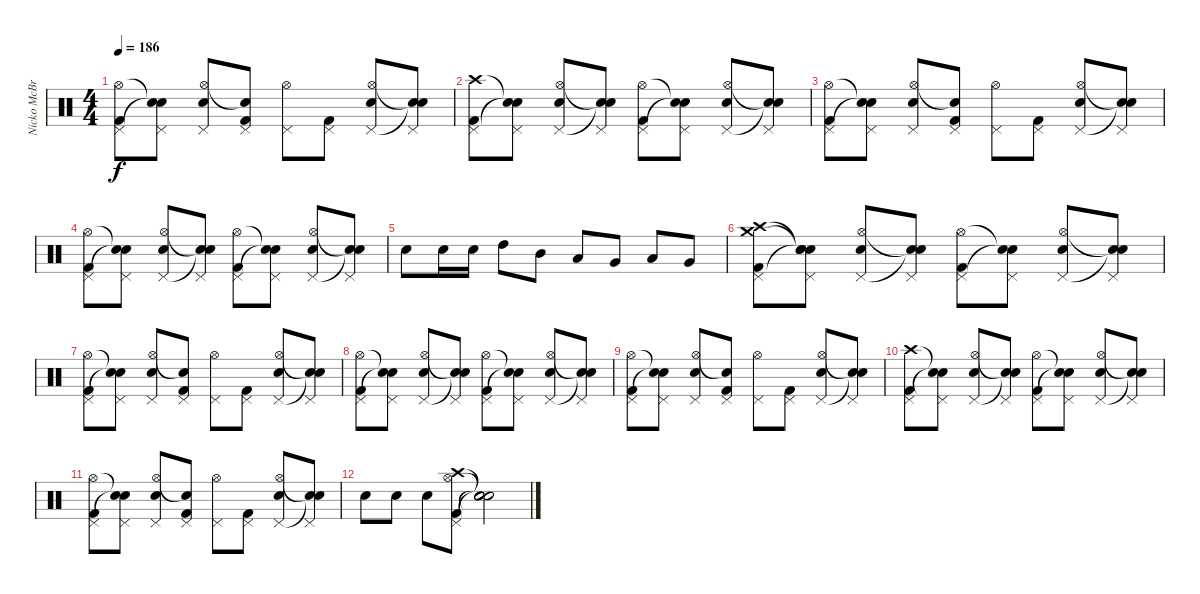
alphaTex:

\track ("Nicko McBrain" "Nicko McBr") {instrument percussion}
\staff {score}
\articulation defaults
\ts (4 4)
\tempo 186
\clef neutral
\ks c
("Kick (hit) 2" "Pedal Hi-Hat (hit)" "Hi-Hat (open)").8{dy f} ("Pedal Hi-Hat (hit)" "Snare (hit)"{t} "Snare (hit)"{t}).8 ("Snare (hit) 2" "Pedal Hi-Hat (hit)" "Hi-Hat (open)").8 ("Kick (hit) 2" "Pedal Hi-Hat (hit)" "Snare (hit)"{t}).8 ("Pedal Hi-Hat (hit)" "Hi-Hat (open)").8 ("Kick (hit) 2" "Pedal Hi-Hat (hit)").8 ("Snare (hit) 2" "Pedal Hi-Hat (hit)" "Hi-Hat (open)").8 ("Pedal Hi-Hat (hit)" "Snare (hit)"{t} "Snare (hit)"{t}).8 |
("Kick (hit) 2" "Pedal Hi-Hat (hit)" "Crash high (hit)").8 ("Pedal Hi-Hat (hit)" "Snare (hit)"{t} "Snare (hit)"{t}).8 ("Snare (hit) 2" "Pedal Hi-Hat (hit)" "Hi-Hat (open)").8 ("Pedal Hi-Hat (hit)" "Snare (hit)"{t} "Snare (hit)"{t}).8 ("Kick (hit) 2" "Pedal Hi-Hat (hit)" "Hi-Hat (open)").8 ("Pedal Hi-Hat (hit)" "Snare (hit)"{t} "Snare (hit)"{t}).8 ("Snare (hit) 2" "Pedal Hi-Hat (hit)" "Hi-Hat (open)").8 ("Pedal Hi-Hat (hit)" "Snare (hit)"{t} "Snare (hit)"{t}).8 |
("Kick (hit) 2" "Pedal Hi-Hat (hit)" "Hi-Hat (open)").8 ("Pedal Hi-Hat (hit)" "Snare (hit)"{t} "Snare (hit)"{t}).8 ("Snare (hit) 2" "Pedal Hi-Hat (hit)" "Hi-Hat (open)").8 ("Kick (hit) 2" "Pedal Hi-Hat (hit)" "Snare (hit)"{t}).8 ("Pedal Hi-Hat (hit)" "Hi-Hat (open)").8 ("Kick (hit) 2" "Pedal Hi-Hat (hit)").8 ("Snare (hit) 2" "Pedal Hi-Hat (hit)" "Hi-Hat (open)").8 ("Pedal Hi-Hat (hit)" "Snare (hit)"{t} "Snare (hit)"{t}).8 |
("Kick (hit) 2" "Pedal Hi-Hat (hit)" "Hi-Hat (open)").8 ("Pedal Hi-Hat (hit)" "Snare (hit)"{t} "Snare (hit)"{t}).8 ("Snare (hit) 2" "Pedal Hi-Hat (hit)" "Hi-Hat (open)").8 ("Pedal Hi-Hat (hit)" "Snare (hit)"{t} "Snare (hit)"{t}).8 ("Kick (hit) 2" "Pedal Hi-Hat (hit)" "Hi-Hat (open)").8 ("Pedal Hi-Hat (hit)" "Snare (hit)"{t} "Snare (hit)"{t}).8 ("Snare (hit) 2" "Pedal Hi-Hat (hit)" "Hi-Hat (open)").8 ("Pedal Hi-Hat (hit)" "Snare (hit)"{t} "Snare (hit)"{t}).8 |
"Snare (hit) 2".8 "Snare (hit) 2".16 "Snare (hit) 2".16 "High Tom (hit)".8 "Mid Tom (hit)".8 "Low Tom (hit)".8 "Very Low Tom (hit)".8 "Low Floor Tom (hit)".8 "Very Low Tom (hit)".8 |
("Kick (hit) 2" "Pedal Hi-Hat (hit)" "Crash high (hit)" "Crash medium (hit)").8 ("Pedal Hi-Hat (hit)" "Snare (hit)"{t} "Snare (hit)"{t} "Snare (hit)"{t}).8 ("Snare (hit) 2" "Pedal Hi-Hat (hit)" "Hi-Hat (open)").8 ("Pedal Hi-Hat (hit)" "Snare (hit)"{t} "Snare (hit)"{t}).8 ("Kick (hit) 2" "Pedal Hi-Hat (hit)" "Hi-Hat (open)").8 ("Pedal Hi-Hat (hit)" "Snare (hit)"{t} "Snare (hit)"{t}).8 ("Snare (hit) 2" "Pedal Hi-Hat (hit)" "Hi-Hat (open)").8 ("Pedal Hi-Hat (hit)" "Snare (hit)"{t} "Snare (hit)"{t}).8 |
("Kick (hit) 2" "Pedal Hi-Hat (hit)" "Hi-Hat (open)").8 ("Pedal Hi-Hat (hit)" "Snare (hit)"{t} "Snare (hit)"{t}).8 ("Snare (hit) 2" "Pedal Hi-Hat (hit)" "Hi-Hat (open)").8 ("Kick (hit) 2" "Pedal Hi-Hat (hit)" "Snare (hit)"{t}).8 ("Pedal Hi-Hat (hit)" "Hi-Hat (open)").8 ("Kick (hit) 2" "Pedal Hi-Hat (hit)").8 ("Snare (hit) 2" "Pedal Hi-Hat (hit)" "Hi-Hat (open)").8 ("Pedal Hi-Hat (hit)" "Snare (hit)"{t} "Snare (hit)"{t}).8 |
("Kick (hit) 2" "Pedal Hi-Hat (hit)" "Hi-Hat (open)").8 ("Pedal Hi-Hat (hit)" "Snare (hit)"{t} "Snare (hit)"{t}).8 ("Snare (hit) 2" "Pedal Hi-Hat (hit)" "Hi-Hat (open)").8 ("Pedal Hi-Hat (hit)" "Snare (hit)"{t} "Snare (hit)"{t}).8 ("Kick (hit) 2" "Pedal Hi-Hat (hit)" "Hi-Hat (open)").8 ("Pedal Hi-Hat (hit)" "Snare (hit)"{t} "Snare (hit)"{t}).8 ("Snare (hit) 2" "Pedal Hi-Hat (hit)" "Hi-Hat (open)").8 ("Pedal Hi-Hat (hit)" "Snare (hit)"{t} "Snare (hit)"{t}).8 |
("Kick (hit) 2" "Pedal Hi-Hat (hit)" "Hi-Hat (open)").8 ("Pedal Hi-Hat (hit)" "Snare (hit)"{t} "Snare (hit)"{t}).8 ("Snare (hit) 2" "Pedal Hi-Hat (hit)" "Hi-Hat (open)").8 ("Kick (hit) 2" "Pedal Hi-Hat (hit)" "Snare (hit)"{t}).8 ("Pedal Hi-Hat (hit)" "Hi-Hat (open)").8 ("Kick (hit) 2" "Pedal Hi-Hat (hit)").8 ("Snare (hit) 2" "Pedal Hi-Hat (hit)" "Hi-Hat (open)").8 ("Pedal Hi-Hat (hit)" "Snare (hit)"{t} "Snare (hit)"{t}).8 |
("Kick (hit) 2" "Pedal Hi-Hat (hit)" "Crash high (hit)").8 ("Pedal Hi-Hat (hit)" "Snare (hit)"{t} "Snare (hit)"{t}).8 ("Snare (hit) 2" "Pedal Hi-Hat (hit)" "Hi-Hat (open)").8 ("Pedal Hi-Hat (hit)" "Snare (hit)"{t} "Snare (hit)"{t}).8 ("Kick (hit) 2" "Pedal Hi-Hat (hit)" "Hi-Hat (open)").8 ("Pedal Hi-Hat (hit)" "Snare (hit)"{t} "Snare (hit)"{t}).8 ("Snare (hit) 2" "Pedal Hi-Hat (hit)" "Hi-Hat (open)").8 ("Pedal Hi-Hat (hit)" "Snare (hit)"{t} "Snare (hit)"{t}).8 |
("Kick (hit) 2" "Pedal Hi-Hat (hit)" "Hi-Hat (open)").8 ("Pedal Hi-Hat (hit)" "Snare (hit)"{t} "Snare (hit)"{t}).8 ("Snare (hit) 2" "Pedal Hi-Hat (hit)" "Hi-Hat (open)").8 ("Kick (hit) 2" "Pedal Hi-Hat (hit)" "Snare (hit)"{t}).8 ("Pedal Hi-Hat (hit)" "Hi-Hat (open)").8 ("Kick (hit) 2" "Pedal Hi-Hat (hit)").8 ("Snare (hit) 2" "Pedal Hi-Hat (hit)" "Hi-Hat (open)").8 ("Pedal Hi-Hat (hit)" "Snare (hit)"{t} "Snare (hit)"{t}).8 |
"Snare (hit) 2".8 "Snare (hit) 2".8 "Snare (hit) 2".8 ("Kick (hit) 2" "Pedal Hi-Hat (hit)" "Hi-Hat (open)" "Crash high (hit)").8 ("Snare (hit)"{t} "Snare (hit)"{t} "Snare (hit)"{t} "Snare (hit)"{t}).2
